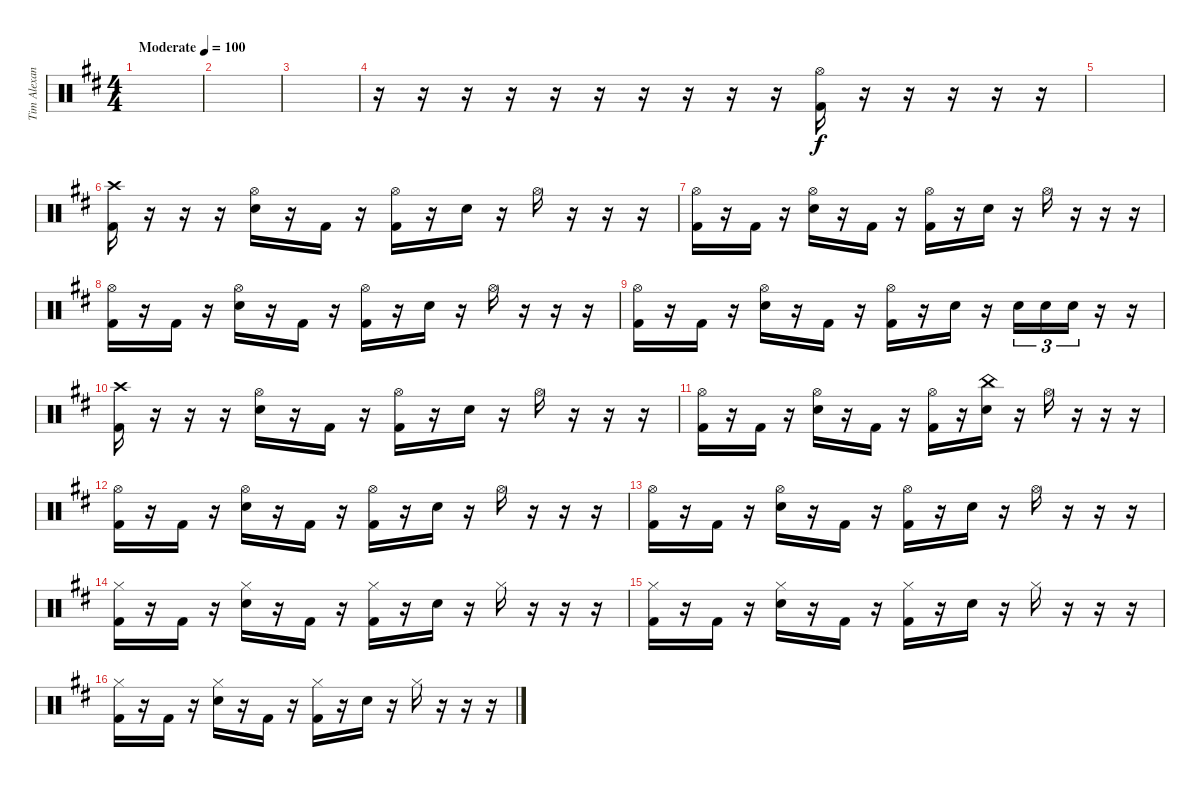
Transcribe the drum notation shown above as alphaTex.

\track ("Tim Alexander" "Tim Alexan") {instrument percussion}
\staff {score}
\articulation defaults
\ts (4 4)
\tempo (100 "Moderate")
\clef neutral
\ks d
|
|
|
r.16 r.16 r.16 r.16 r.16 r.16 r.16 r.16 r.16 r.16 ("Hi-Hat (open)" "Kick (hit) 2").16 r.16 r.16 r.16 r.16 r.16 |
|
("Crash high (hit)" "Kick (hit) 2").16 r.16 r.16 r.16 ("Hi-Hat (open)" "Snare (hit) 2").16 r.16 "Kick (hit) 2".16 r.16 ("Hi-Hat (open)" "Kick (hit) 2").16 r.16 "Snare (hit) 2".16 r.16 "Hi-Hat (open)".16 r.16 r.16 r.16 |
("Hi-Hat (open)" "Kick (hit) 2").16 r.16 "Kick (hit) 2".16 r.16 ("Hi-Hat (open)" "Snare (hit) 2").16 r.16 "Kick (hit) 2".16 r.16 ("Hi-Hat (open)" "Kick (hit) 2").16 r.16 "Snare (hit) 2".16 r.16 "Hi-Hat (open)".16 r.16 r.16 r.16 |
("Hi-Hat (open)" "Kick (hit) 2").16 r.16 "Kick (hit) 2".16 r.16 ("Hi-Hat (open)" "Snare (hit) 2").16 r.16 "Kick (hit) 2".16 r.16 ("Hi-Hat (open)" "Kick (hit) 2").16 r.16 "Snare (hit) 2".16 r.16 "Hi-Hat (open)".16 r.16 r.16 r.16 |
("Hi-Hat (open)" "Kick (hit) 2").16 r.16 "Kick (hit) 2".16 r.16 ("Hi-Hat (open)" "Snare (hit) 2").16 r.16 "Kick (hit) 2".16 r.16 ("Hi-Hat (open)" "Kick (hit) 2").16 r.16 "Snare (hit) 2".16 r.16 "Snare (hit) 2".16{tu (3 2)} "Snare (hit) 2".16{tu (3 2)} "Snare (hit) 2".16{tu (3 2)} r.16 r.16 |
("Crash high (hit)" "Kick (hit) 2").16 r.16 r.16 r.16 ("Hi-Hat (open)" "Snare (hit) 2").16 r.16 "Kick (hit) 2".16 r.16 ("Hi-Hat (open)" "Kick (hit) 2").16 r.16 "Snare (hit) 2".16 r.16 "Hi-Hat (open)".16 r.16 r.16 r.16 |
("Hi-Hat (open)" "Kick (hit) 2").16 r.16 "Kick (hit) 2".16 r.16 ("Hi-Hat (open)" "Snare (hit) 2").16 r.16 "Kick (hit) 2".16 r.16 ("Hi-Hat (open)" "Kick (hit) 2").16 r.16 ("China (hit)" "Snare (hit) 2").16 r.16 "Hi-Hat (open)".16 r.16 r.16 r.16 |
("Hi-Hat (open)" "Kick (hit) 2").16 r.16 "Kick (hit) 2".16 r.16 ("Hi-Hat (open)" "Snare (hit) 2").16 r.16 "Kick (hit) 2".16 r.16 ("Hi-Hat (open)" "Kick (hit) 2").16 r.16 "Snare (hit) 2".16 r.16 "Hi-Hat (open)".16 r.16 r.16 r.16 |
("Hi-Hat (open)" "Kick (hit) 2").16 r.16 "Kick (hit) 2".16 r.16 ("Hi-Hat (open)" "Snare (hit) 2").16 r.16 "Kick (hit) 2".16 r.16 ("Hi-Hat (open)" "Kick (hit) 2").16 r.16 "Snare (hit) 2".16 r.16 "Hi-Hat (open)".16 r.16 r.16 r.16 |
("Hi-Hat (closed)" "Kick (hit) 2").16 r.16 "Kick (hit) 2".16 r.16 ("Hi-Hat (closed)" "Snare (hit) 2").16 r.16 "Kick (hit) 2".16 r.16 ("Hi-Hat (closed)" "Kick (hit) 2").16 r.16 "Snare (hit) 2".16 r.16 "Hi-Hat (closed)".16 r.16 r.16 r.16 |
("Hi-Hat (closed)" "Kick (hit) 2").16 r.16 "Kick (hit) 2".16 r.16 ("Hi-Hat (closed)" "Snare (hit) 2").16 r.16 "Kick (hit) 2".16 r.16 ("Hi-Hat (closed)" "Kick (hit) 2").16 r.16 "Snare (hit) 2".16 r.16 "Hi-Hat (closed)".16 r.16 r.16 r.16 |
("Hi-Hat (closed)" "Kick (hit) 2").16 r.16 "Kick (hit) 2".16 r.16 ("Hi-Hat (closed)" "Snare (hit) 2").16 r.16 "Kick (hit) 2".16 r.16 ("Hi-Hat (closed)" "Kick (hit) 2").16 r.16 "Snare (hit) 2".16 r.16 "Hi-Hat (closed)".16 r.16 r.16 r.16
